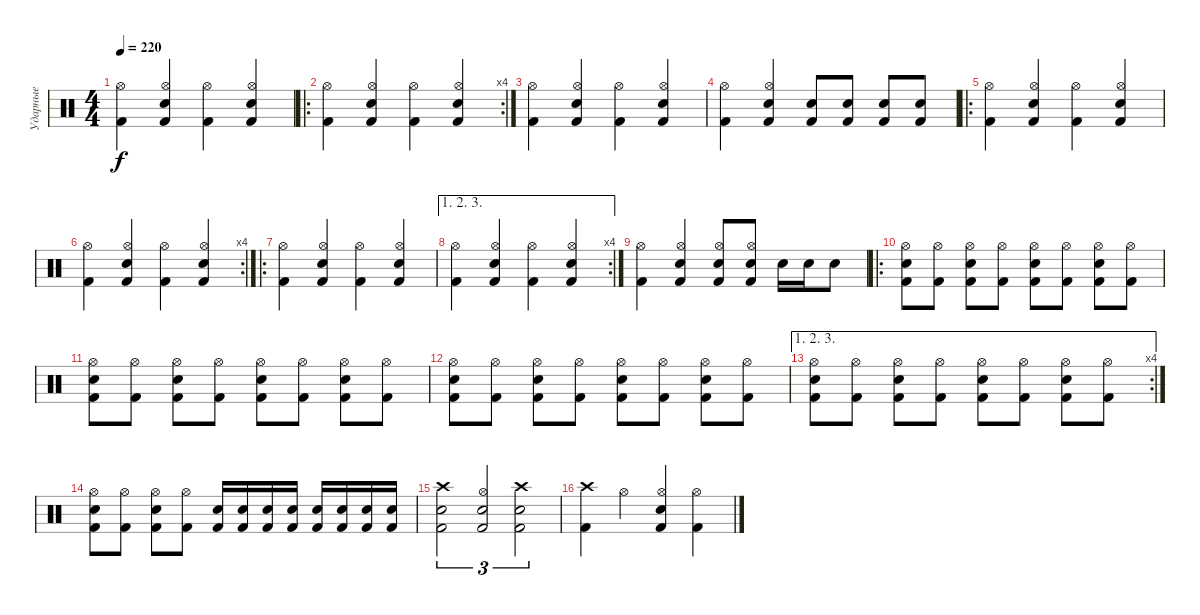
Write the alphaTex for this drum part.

\track ("Ударные" "Ударные") {instrument percussion}
\staff
\articulation defaults
\ts (4 4)
\tempo 220
\clef neutral
\ks c
("Kick (hit) 2" "Hi-Hat (open)").4{dy f} ("Kick (hit) 2" "Snare (hit) 2" "Hi-Hat (open)").4 ("Kick (hit) 2" "Hi-Hat (open)").4 ("Kick (hit) 2" "Snare (hit) 2" "Hi-Hat (open)").4 |
\ro
\rc 4
("Kick (hit) 2" "Hi-Hat (open)").4 ("Kick (hit) 2" "Snare (hit) 2" "Hi-Hat (open)").4 ("Kick (hit) 2" "Hi-Hat (open)").4 ("Kick (hit) 2" "Snare (hit) 2" "Hi-Hat (open)").4 |
("Kick (hit) 2" "Hi-Hat (open)").4 ("Kick (hit) 2" "Snare (hit) 2" "Hi-Hat (open)").4 ("Kick (hit) 2" "Hi-Hat (open)").4 ("Kick (hit) 2" "Snare (hit) 2" "Hi-Hat (open)").4 |
("Kick (hit) 2" "Hi-Hat (open)").4 ("Kick (hit) 2" "Snare (hit) 2" "Hi-Hat (open)").4 ("Kick (hit) 2" "Snare (hit) 2").8 ("Kick (hit) 2" "Snare (hit) 2").8 ("Kick (hit) 2" "Snare (hit) 2").8 ("Kick (hit) 2" "Snare (hit) 2").8 |
\ro
("Kick (hit) 2" "Hi-Hat (open)").4 ("Kick (hit) 2" "Snare (hit) 2" "Hi-Hat (open)").4 ("Kick (hit) 2" "Hi-Hat (open)").4 ("Kick (hit) 2" "Snare (hit) 2" "Hi-Hat (open)").4 |
\rc 4
("Kick (hit) 2" "Hi-Hat (open)").4 ("Kick (hit) 2" "Snare (hit) 2" "Hi-Hat (open)").4 ("Kick (hit) 2" "Hi-Hat (open)").4 ("Kick (hit) 2" "Snare (hit) 2" "Hi-Hat (open)").4 |
\ro
("Kick (hit) 2" "Hi-Hat (open)").4 ("Kick (hit) 2" "Snare (hit) 2" "Hi-Hat (open)").4 ("Kick (hit) 2" "Hi-Hat (open)").4 ("Kick (hit) 2" "Snare (hit) 2" "Hi-Hat (open)").4 |
\ae (1 2 3)
\rc 4
("Kick (hit) 2" "Hi-Hat (open)").4 ("Kick (hit) 2" "Snare (hit) 2" "Hi-Hat (open)").4 ("Kick (hit) 2" "Hi-Hat (open)").4 ("Kick (hit) 2" "Snare (hit) 2" "Hi-Hat (open)").4 |
("Kick (hit) 2" "Hi-Hat (open)").4 ("Kick (hit) 2" "Snare (hit) 2" "Hi-Hat (open)").4 ("Kick (hit) 2" "Snare (hit) 2" "Hi-Hat (open)").8 ("Kick (hit) 2" "Snare (hit) 2" "Hi-Hat (open)").8 "Snare (hit) 2".16 "Snare (hit) 2".16 "Snare (hit) 2".8 |
\ro
("Kick (hit) 2" "Snare (hit) 2" "Hi-Hat (open)").8 ("Kick (hit) 2" "Hi-Hat (open)").8 ("Kick (hit) 2" "Snare (hit) 2" "Hi-Hat (open)").8 ("Kick (hit) 2" "Hi-Hat (open)").8 ("Kick (hit) 2" "Snare (hit) 2" "Hi-Hat (open)").8 ("Kick (hit) 2" "Hi-Hat (open)").8 ("Kick (hit) 2" "Snare (hit) 2" "Hi-Hat (open)").8 ("Kick (hit) 2" "Hi-Hat (open)").8 |
("Kick (hit) 2" "Snare (hit) 2" "Hi-Hat (open)").8 ("Kick (hit) 2" "Hi-Hat (open)").8 ("Kick (hit) 2" "Snare (hit) 2" "Hi-Hat (open)").8 ("Kick (hit) 2" "Hi-Hat (open)").8 ("Kick (hit) 2" "Snare (hit) 2" "Hi-Hat (open)").8 ("Kick (hit) 2" "Hi-Hat (open)").8 ("Kick (hit) 2" "Snare (hit) 2" "Hi-Hat (open)").8 ("Kick (hit) 2" "Hi-Hat (open)").8 |
("Kick (hit) 2" "Snare (hit) 2" "Hi-Hat (open)").8 ("Kick (hit) 2" "Hi-Hat (open)").8 ("Kick (hit) 2" "Snare (hit) 2" "Hi-Hat (open)").8 ("Kick (hit) 2" "Hi-Hat (open)").8 ("Kick (hit) 2" "Snare (hit) 2" "Hi-Hat (open)").8 ("Kick (hit) 2" "Hi-Hat (open)").8 ("Kick (hit) 2" "Snare (hit) 2" "Hi-Hat (open)").8 ("Kick (hit) 2" "Hi-Hat (open)").8 |
\ae (1 2 3)
\rc 4
("Kick (hit) 2" "Snare (hit) 2" "Hi-Hat (open)").8 ("Kick (hit) 2" "Hi-Hat (open)").8 ("Kick (hit) 2" "Snare (hit) 2" "Hi-Hat (open)").8 ("Kick (hit) 2" "Hi-Hat (open)").8 ("Kick (hit) 2" "Snare (hit) 2" "Hi-Hat (open)").8 ("Kick (hit) 2" "Hi-Hat (open)").8 ("Kick (hit) 2" "Snare (hit) 2" "Hi-Hat (open)").8 ("Kick (hit) 2" "Hi-Hat (open)").8 |
("Kick (hit) 2" "Snare (hit) 2" "Hi-Hat (open)").8 ("Kick (hit) 2" "Hi-Hat (open)").8 ("Kick (hit) 2" "Snare (hit) 2" "Hi-Hat (open)").8 ("Kick (hit) 2" "Hi-Hat (open)").8 ("Kick (hit) 2" "Snare (hit) 2").16 ("Kick (hit) 2" "Snare (hit) 2").16 ("Kick (hit) 2" "Snare (hit) 2").16 ("Kick (hit) 2" "Snare (hit) 2").16 ("Kick (hit) 2" "Snare (hit) 2").16 ("Kick (hit) 2" "Snare (hit) 2").16 ("Kick (hit) 2" "Snare (hit) 2").16 ("Kick (hit) 2" "Snare (hit) 2").16 |
("Kick (hit) 2" "Snare (hit) 2" "Crash high (hit)").2{tu (3 2)} ("Kick (hit) 2" "Snare (hit) 2" "Hi-Hat (open)").2{tu (3 2)} ("Kick (hit) 2" "Snare (hit) 2" "Crash high (hit)").2{tu (3 2)} |
("Kick (hit) 2" "Crash high (hit)").4 "Hi-Hat (open)".4 ("Kick (hit) 2" "Snare (hit) 2" "Hi-Hat (open)").4 ("Kick (hit) 2" "Hi-Hat (open)").4
